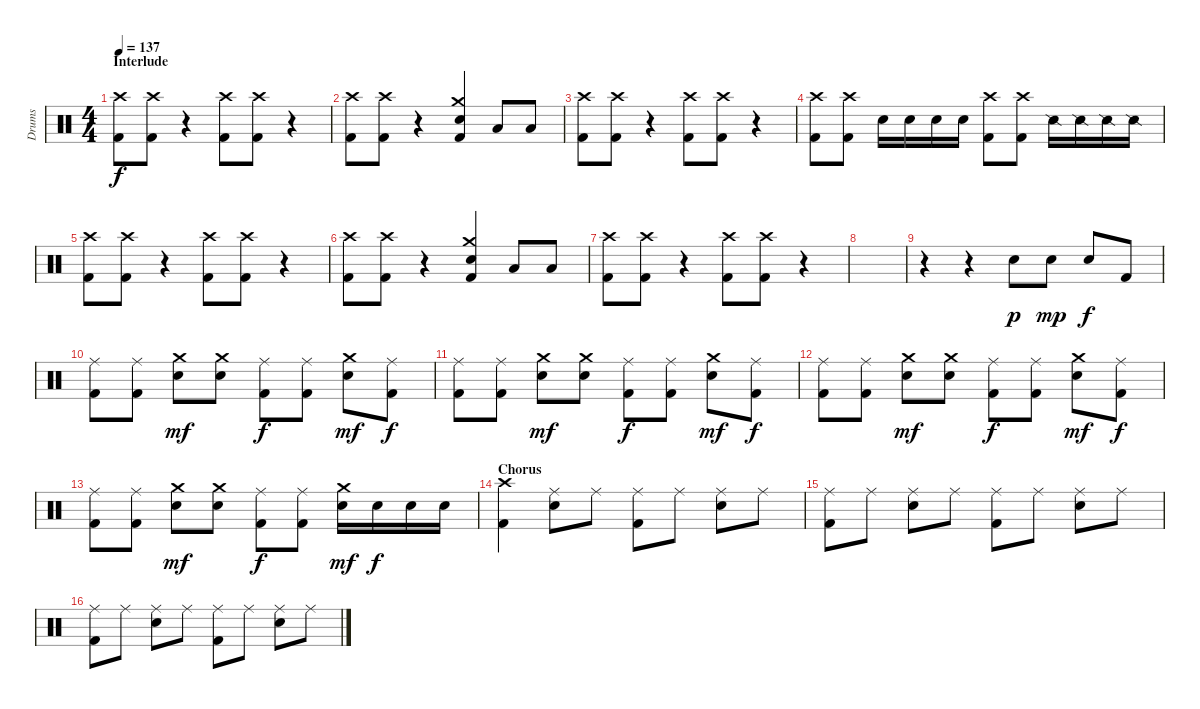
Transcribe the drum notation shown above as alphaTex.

\track ("Drums" "Drums") {instrument percussion}
\staff {score}
\articulation defaults
\ts (4 4)
\section ("" "Interlude")
\tempo 137
\clef neutral
\ks c
("Crash high (hit)" "Kick (hit) 2").8{dy f} ("Crash high (hit)" "Kick (hit) 2").8 r.4 ("Crash high (hit)" "Kick (hit) 2").8 ("Crash high (hit)" "Kick (hit) 2").8 r.4 |
("Crash high (hit)" "Kick (hit) 2").8 ("Crash high (hit)" "Kick (hit) 2").8 r.4 ("Crash medium (hit)" "Snare (hit) 2" "Kick (hit) 2").4 "Low Tom (hit)".8 "Low Tom (hit)".8 |
("Crash high (hit)" "Kick (hit) 2").8 ("Crash high (hit)" "Kick (hit) 2").8 r.4 ("Crash high (hit)" "Kick (hit) 2").8 ("Crash high (hit)" "Kick (hit) 2").8 r.4 |
("Crash high (hit)" "Kick (hit) 2").8 ("Crash high (hit)" "Kick (hit) 2").8 "Snare (hit) 2".16 "Snare (hit) 2".16 "Snare (hit) 2".16 "Snare (hit) 2".16 ("Crash high (hit)" "Kick (hit) 2").8 ("Crash high (hit)" "Kick (hit) 2").8 "Snare (side stick) 2".16 "Snare (side stick) 2".16 "Snare (side stick) 2".16 "Snare (side stick) 2".16 |
("Crash high (hit)" "Kick (hit) 2").8 ("Crash high (hit)" "Kick (hit) 2").8 r.4 ("Crash high (hit)" "Kick (hit) 2").8 ("Crash high (hit)" "Kick (hit) 2").8 r.4 |
("Crash high (hit)" "Kick (hit) 2").8 ("Crash high (hit)" "Kick (hit) 2").8 r.4 ("Crash medium (hit)" "Snare (hit) 2" "Kick (hit) 2").4 "Low Tom (hit)".8 "Low Tom (hit)".8 |
("Crash high (hit)" "Kick (hit) 2").8 ("Crash high (hit)" "Kick (hit) 2").8 r.4 ("Crash high (hit)" "Kick (hit) 2").8 ("Crash high (hit)" "Kick (hit) 2").8 r.4 |
|
r.4 r.4 "Snare (hit) 2".8{dy p} "Snare (hit) 2".8{dy mp} "Snare (hit) 2".8{dy f} "Kick (hit) 2".8 |
("Ride (middle)" "Kick (hit) 2").8 ("Ride (middle)" "Kick (hit) 2").8 ("Crash medium (hit)" "Snare (hit) 2").8{dy mf} ("Crash medium (hit)" "Snare (hit) 2").8 ("Ride (middle)" "Kick (hit) 2").8{dy f} ("Ride (middle)" "Kick (hit) 2").8 ("Crash medium (hit)" "Snare (hit) 2").8{dy mf} ("Ride (middle)" "Kick (hit) 2").8{dy f} |
("Ride (middle)" "Kick (hit) 2").8 ("Ride (middle)" "Kick (hit) 2").8 ("Crash medium (hit)" "Snare (hit) 2").8{dy mf} ("Crash medium (hit)" "Snare (hit) 2").8 ("Ride (middle)" "Kick (hit) 2").8{dy f} ("Ride (middle)" "Kick (hit) 2").8 ("Crash medium (hit)" "Snare (hit) 2").8{dy mf} ("Ride (middle)" "Kick (hit) 2").8{dy f} |
("Ride (middle)" "Kick (hit) 2").8 ("Ride (middle)" "Kick (hit) 2").8 ("Crash medium (hit)" "Snare (hit) 2").8{dy mf} ("Crash medium (hit)" "Snare (hit) 2").8 ("Ride (middle)" "Kick (hit) 2").8{dy f} ("Ride (middle)" "Kick (hit) 2").8 ("Crash medium (hit)" "Snare (hit) 2").8{dy mf} ("Ride (middle)" "Kick (hit) 2").8{dy f} |
("Ride (middle)" "Kick (hit) 2").8 ("Ride (middle)" "Kick (hit) 2").8 ("Crash medium (hit)" "Snare (hit) 2").8{dy mf} ("Crash medium (hit)" "Snare (hit) 2").8 ("Ride (middle)" "Kick (hit) 2").8{dy f} ("Ride (middle)" "Kick (hit) 2").8 ("Crash medium (hit)" "Snare (hit) 2").16{dy mf} "Snare (hit) 2".16{dy f} "Snare (hit) 2".16 "Snare (hit) 2".16 |
\section ("" "Chorus")
("Crash high (hit)" "Kick (hit) 2").4 ("Ride (middle)" "Snare (hit) 2").8 "Ride (middle)".8 ("Ride (middle)" "Kick (hit) 2").8 "Ride (middle)".8 ("Ride (middle)" "Snare (hit) 2").8 "Ride (middle)".8 |
("Ride (middle)" "Kick (hit) 2").8 "Ride (middle)".8 ("Ride (middle)" "Snare (hit) 2").8 "Ride (middle)".8 ("Ride (middle)" "Kick (hit) 2").8 "Ride (middle)".8 ("Ride (middle)" "Snare (hit) 2").8 "Ride (middle)".8 |
("Ride (middle)" "Kick (hit) 2").8 "Ride (middle)".8 ("Ride (middle)" "Snare (hit) 2").8 "Ride (middle)".8 ("Ride (middle)" "Kick (hit) 2").8 "Ride (middle)".8 ("Ride (middle)" "Snare (hit) 2").8 "Ride (middle)".8
